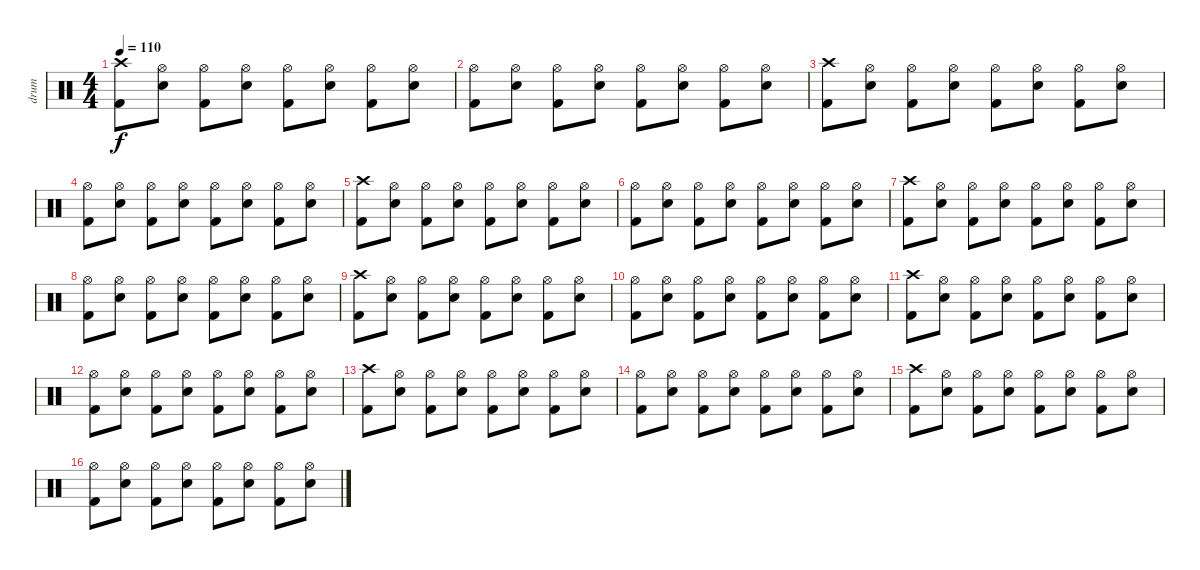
\track ("drum" "drum") {instrument percussion}
\staff {score}
\articulation defaults
\ts (4 4)
\tempo 110
\clef neutral
\ks c
("Crash high (hit)" "Kick (hit) 2").8{dy f} ("Hi-Hat (open)" "Electric Snare (hit)").8 ("Hi-Hat (open)" "Kick (hit) 2").8 ("Hi-Hat (open)" "Electric Snare (hit)").8 ("Hi-Hat (open)" "Kick (hit) 2").8 ("Hi-Hat (open)" "Electric Snare (hit)").8 ("Hi-Hat (open)" "Kick (hit) 2").8 ("Hi-Hat (open)" "Electric Snare (hit)").8 |
("Hi-Hat (open)" "Kick (hit) 2").8 ("Hi-Hat (open)" "Electric Snare (hit)").8 ("Hi-Hat (open)" "Kick (hit) 2").8 ("Hi-Hat (open)" "Electric Snare (hit)").8 ("Hi-Hat (open)" "Kick (hit) 2").8 ("Hi-Hat (open)" "Electric Snare (hit)").8 ("Hi-Hat (open)" "Kick (hit) 2").8 ("Hi-Hat (open)" "Electric Snare (hit)").8 |
("Crash high (hit)" "Kick (hit) 2").8 ("Hi-Hat (open)" "Electric Snare (hit)").8 ("Hi-Hat (open)" "Kick (hit) 2").8 ("Hi-Hat (open)" "Electric Snare (hit)").8 ("Hi-Hat (open)" "Kick (hit) 2").8 ("Hi-Hat (open)" "Electric Snare (hit)").8 ("Hi-Hat (open)" "Kick (hit) 2").8 ("Hi-Hat (open)" "Electric Snare (hit)").8 |
("Hi-Hat (open)" "Kick (hit) 2").8 ("Hi-Hat (open)" "Electric Snare (hit)").8 ("Hi-Hat (open)" "Kick (hit) 2").8 ("Hi-Hat (open)" "Electric Snare (hit)").8 ("Hi-Hat (open)" "Kick (hit) 2").8 ("Hi-Hat (open)" "Electric Snare (hit)").8 ("Hi-Hat (open)" "Kick (hit) 2").8 ("Hi-Hat (open)" "Electric Snare (hit)").8 |
("Crash high (hit)" "Kick (hit) 2").8 ("Hi-Hat (open)" "Electric Snare (hit)").8 ("Hi-Hat (open)" "Kick (hit) 2").8 ("Hi-Hat (open)" "Electric Snare (hit)").8 ("Hi-Hat (open)" "Kick (hit) 2").8 ("Hi-Hat (open)" "Electric Snare (hit)").8 ("Hi-Hat (open)" "Kick (hit) 2").8 ("Hi-Hat (open)" "Electric Snare (hit)").8 |
("Hi-Hat (open)" "Kick (hit) 2").8 ("Hi-Hat (open)" "Electric Snare (hit)").8 ("Hi-Hat (open)" "Kick (hit) 2").8 ("Hi-Hat (open)" "Electric Snare (hit)").8 ("Hi-Hat (open)" "Kick (hit) 2").8 ("Hi-Hat (open)" "Electric Snare (hit)").8 ("Hi-Hat (open)" "Kick (hit) 2").8 ("Hi-Hat (open)" "Electric Snare (hit)").8 |
("Crash high (hit)" "Kick (hit) 2").8 ("Hi-Hat (open)" "Electric Snare (hit)").8 ("Hi-Hat (open)" "Kick (hit) 2").8 ("Hi-Hat (open)" "Electric Snare (hit)").8 ("Hi-Hat (open)" "Kick (hit) 2").8 ("Hi-Hat (open)" "Electric Snare (hit)").8 ("Hi-Hat (open)" "Kick (hit) 2").8 ("Hi-Hat (open)" "Electric Snare (hit)").8 |
("Hi-Hat (open)" "Kick (hit) 2").8 ("Hi-Hat (open)" "Electric Snare (hit)").8 ("Hi-Hat (open)" "Kick (hit) 2").8 ("Hi-Hat (open)" "Electric Snare (hit)").8 ("Hi-Hat (open)" "Kick (hit) 2").8 ("Hi-Hat (open)" "Electric Snare (hit)").8 ("Hi-Hat (open)" "Kick (hit) 2").8 ("Hi-Hat (open)" "Electric Snare (hit)").8 |
("Crash high (hit)" "Kick (hit) 2").8 ("Hi-Hat (open)" "Electric Snare (hit)").8 ("Hi-Hat (open)" "Kick (hit) 2").8 ("Hi-Hat (open)" "Electric Snare (hit)").8 ("Hi-Hat (open)" "Kick (hit) 2").8 ("Hi-Hat (open)" "Electric Snare (hit)").8 ("Hi-Hat (open)" "Kick (hit) 2").8 ("Hi-Hat (open)" "Electric Snare (hit)").8 |
("Hi-Hat (open)" "Kick (hit) 2").8 ("Hi-Hat (open)" "Electric Snare (hit)").8 ("Hi-Hat (open)" "Kick (hit) 2").8 ("Hi-Hat (open)" "Electric Snare (hit)").8 ("Hi-Hat (open)" "Kick (hit) 2").8 ("Hi-Hat (open)" "Electric Snare (hit)").8 ("Hi-Hat (open)" "Kick (hit) 2").8 ("Hi-Hat (open)" "Electric Snare (hit)").8 |
("Crash high (hit)" "Kick (hit) 2").8 ("Hi-Hat (open)" "Electric Snare (hit)").8 ("Hi-Hat (open)" "Kick (hit) 2").8 ("Hi-Hat (open)" "Electric Snare (hit)").8 ("Hi-Hat (open)" "Kick (hit) 2").8 ("Hi-Hat (open)" "Electric Snare (hit)").8 ("Hi-Hat (open)" "Kick (hit) 2").8 ("Hi-Hat (open)" "Electric Snare (hit)").8 |
("Hi-Hat (open)" "Kick (hit) 2").8 ("Hi-Hat (open)" "Electric Snare (hit)").8 ("Hi-Hat (open)" "Kick (hit) 2").8 ("Hi-Hat (open)" "Electric Snare (hit)").8 ("Hi-Hat (open)" "Kick (hit) 2").8 ("Hi-Hat (open)" "Electric Snare (hit)").8 ("Hi-Hat (open)" "Kick (hit) 2").8 ("Hi-Hat (open)" "Electric Snare (hit)").8 |
("Crash high (hit)" "Kick (hit) 2").8 ("Hi-Hat (open)" "Electric Snare (hit)").8 ("Hi-Hat (open)" "Kick (hit) 2").8 ("Hi-Hat (open)" "Electric Snare (hit)").8 ("Hi-Hat (open)" "Kick (hit) 2").8 ("Hi-Hat (open)" "Electric Snare (hit)").8 ("Hi-Hat (open)" "Kick (hit) 2").8 ("Hi-Hat (open)" "Electric Snare (hit)").8 |
("Hi-Hat (open)" "Kick (hit) 2").8 ("Hi-Hat (open)" "Electric Snare (hit)").8 ("Hi-Hat (open)" "Kick (hit) 2").8 ("Hi-Hat (open)" "Electric Snare (hit)").8 ("Hi-Hat (open)" "Kick (hit) 2").8 ("Hi-Hat (open)" "Electric Snare (hit)").8 ("Hi-Hat (open)" "Kick (hit) 2").8 ("Hi-Hat (open)" "Electric Snare (hit)").8 |
("Crash high (hit)" "Kick (hit) 2").8 ("Hi-Hat (open)" "Electric Snare (hit)").8 ("Hi-Hat (open)" "Kick (hit) 2").8 ("Hi-Hat (open)" "Electric Snare (hit)").8 ("Hi-Hat (open)" "Kick (hit) 2").8 ("Hi-Hat (open)" "Electric Snare (hit)").8 ("Hi-Hat (open)" "Kick (hit) 2").8 ("Hi-Hat (open)" "Electric Snare (hit)").8 |
("Hi-Hat (open)" "Kick (hit) 2").8 ("Hi-Hat (open)" "Electric Snare (hit)").8 ("Hi-Hat (open)" "Kick (hit) 2").8 ("Hi-Hat (open)" "Electric Snare (hit)").8 ("Hi-Hat (open)" "Kick (hit) 2").8 ("Hi-Hat (open)" "Electric Snare (hit)").8 ("Hi-Hat (open)" "Kick (hit) 2").8 ("Hi-Hat (open)" "Electric Snare (hit)").8
